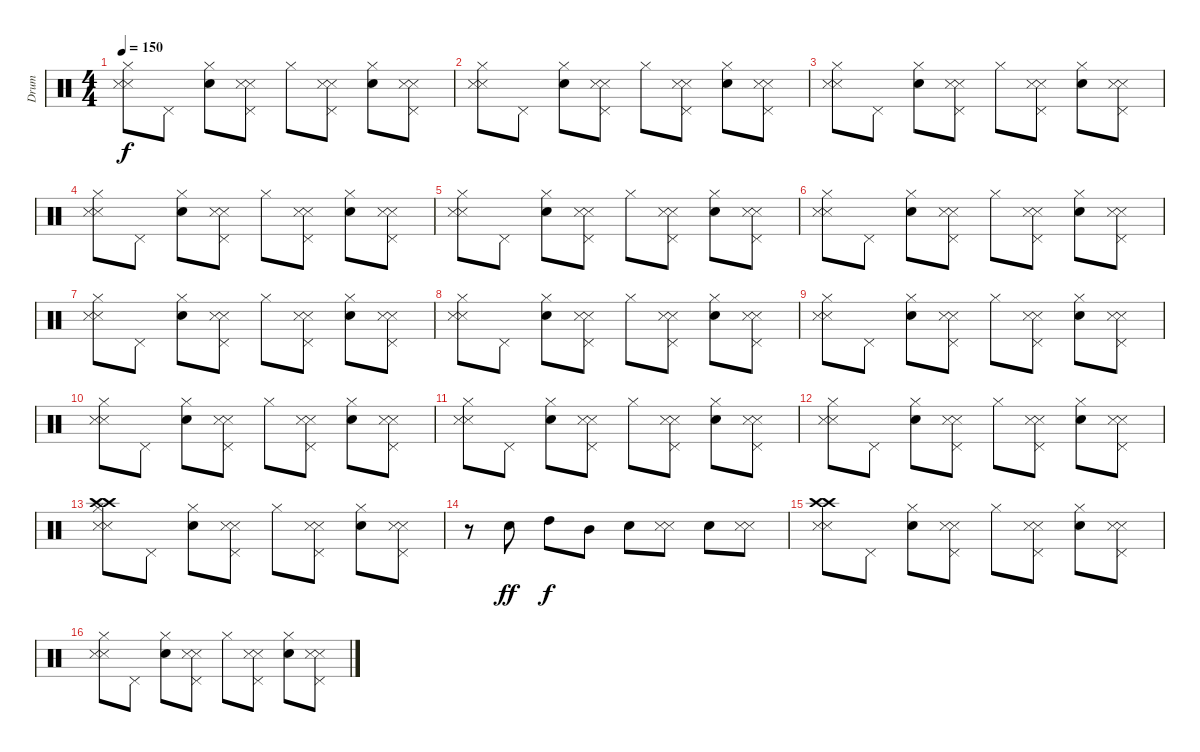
\track ("Drum" "Drum") {instrument percussion}
\staff {score}
\articulation defaults
\ts (4 4)
\tempo 150
\clef neutral
\ks c
("Metronome (hit)" "Metronome (hit)" "Hi-Hat (closed)").8{dy f} "Pedal Hi-Hat (hit)".8 ("Electric Snare (hit)" "Hi-Hat (closed)").8 ("Metronome (hit)" "Metronome (hit)" "Pedal Hi-Hat (hit)").8 "Hi-Hat (closed)".8 ("Metronome (hit)" "Metronome (hit)" "Pedal Hi-Hat (hit)").8 ("Electric Snare (hit)" "Hi-Hat (closed)").8 ("Metronome (hit)" "Metronome (hit)" "Pedal Hi-Hat (hit)").8 |
("Metronome (hit)" "Metronome (hit)" "Hi-Hat (closed)").8 "Pedal Hi-Hat (hit)".8 ("Electric Snare (hit)" "Hi-Hat (closed)").8 ("Metronome (hit)" "Metronome (hit)" "Pedal Hi-Hat (hit)").8 "Hi-Hat (closed)".8 ("Metronome (hit)" "Metronome (hit)" "Pedal Hi-Hat (hit)").8 ("Electric Snare (hit)" "Hi-Hat (closed)").8 ("Metronome (hit)" "Metronome (hit)" "Pedal Hi-Hat (hit)").8 |
("Metronome (hit)" "Metronome (hit)" "Hi-Hat (closed)").8 "Pedal Hi-Hat (hit)".8 ("Electric Snare (hit)" "Hi-Hat (closed)").8 ("Metronome (hit)" "Metronome (hit)" "Pedal Hi-Hat (hit)").8 "Hi-Hat (closed)".8 ("Metronome (hit)" "Metronome (hit)" "Pedal Hi-Hat (hit)").8 ("Electric Snare (hit)" "Hi-Hat (closed)").8 ("Metronome (hit)" "Metronome (hit)" "Pedal Hi-Hat (hit)").8 |
("Metronome (hit)" "Metronome (hit)" "Hi-Hat (closed)").8 "Pedal Hi-Hat (hit)".8 ("Electric Snare (hit)" "Hi-Hat (closed)").8 ("Metronome (hit)" "Metronome (hit)" "Pedal Hi-Hat (hit)").8 "Hi-Hat (closed)".8 ("Metronome (hit)" "Metronome (hit)" "Pedal Hi-Hat (hit)").8 ("Electric Snare (hit)" "Hi-Hat (closed)").8 ("Metronome (hit)" "Metronome (hit)" "Pedal Hi-Hat (hit)").8 |
("Metronome (hit)" "Metronome (hit)" "Hi-Hat (closed)").8 "Pedal Hi-Hat (hit)".8 ("Electric Snare (hit)" "Hi-Hat (closed)").8 ("Metronome (hit)" "Metronome (hit)" "Pedal Hi-Hat (hit)").8 "Hi-Hat (closed)".8 ("Metronome (hit)" "Metronome (hit)" "Pedal Hi-Hat (hit)").8 ("Electric Snare (hit)" "Hi-Hat (closed)").8 ("Metronome (hit)" "Metronome (hit)" "Pedal Hi-Hat (hit)").8 |
("Metronome (hit)" "Metronome (hit)" "Hi-Hat (closed)").8 "Pedal Hi-Hat (hit)".8 ("Electric Snare (hit)" "Hi-Hat (closed)").8 ("Metronome (hit)" "Metronome (hit)" "Pedal Hi-Hat (hit)").8 "Hi-Hat (closed)".8 ("Metronome (hit)" "Metronome (hit)" "Pedal Hi-Hat (hit)").8 ("Electric Snare (hit)" "Hi-Hat (closed)").8 ("Metronome (hit)" "Metronome (hit)" "Pedal Hi-Hat (hit)").8 |
("Metronome (hit)" "Metronome (hit)" "Hi-Hat (closed)").8 "Pedal Hi-Hat (hit)".8 ("Electric Snare (hit)" "Hi-Hat (closed)").8 ("Metronome (hit)" "Metronome (hit)" "Pedal Hi-Hat (hit)").8 "Hi-Hat (closed)".8 ("Metronome (hit)" "Metronome (hit)" "Pedal Hi-Hat (hit)").8 ("Electric Snare (hit)" "Hi-Hat (closed)").8 ("Metronome (hit)" "Metronome (hit)" "Pedal Hi-Hat (hit)").8 |
("Metronome (hit)" "Metronome (hit)" "Hi-Hat (closed)").8 "Pedal Hi-Hat (hit)".8 ("Electric Snare (hit)" "Hi-Hat (closed)").8 ("Metronome (hit)" "Metronome (hit)" "Pedal Hi-Hat (hit)").8 "Hi-Hat (closed)".8 ("Metronome (hit)" "Metronome (hit)" "Pedal Hi-Hat (hit)").8 ("Electric Snare (hit)" "Hi-Hat (closed)").8 ("Metronome (hit)" "Metronome (hit)" "Pedal Hi-Hat (hit)").8 |
("Metronome (hit)" "Metronome (hit)" "Hi-Hat (closed)").8 "Pedal Hi-Hat (hit)".8 ("Electric Snare (hit)" "Hi-Hat (closed)").8 ("Metronome (hit)" "Metronome (hit)" "Pedal Hi-Hat (hit)").8 "Hi-Hat (closed)".8 ("Metronome (hit)" "Metronome (hit)" "Pedal Hi-Hat (hit)").8 ("Electric Snare (hit)" "Hi-Hat (closed)").8 ("Metronome (hit)" "Metronome (hit)" "Pedal Hi-Hat (hit)").8 |
("Metronome (hit)" "Metronome (hit)" "Hi-Hat (closed)").8 "Pedal Hi-Hat (hit)".8 ("Electric Snare (hit)" "Hi-Hat (closed)").8 ("Metronome (hit)" "Metronome (hit)" "Pedal Hi-Hat (hit)").8 "Hi-Hat (closed)".8 ("Metronome (hit)" "Metronome (hit)" "Pedal Hi-Hat (hit)").8 ("Electric Snare (hit)" "Hi-Hat (closed)").8 ("Metronome (hit)" "Metronome (hit)" "Pedal Hi-Hat (hit)").8 |
("Metronome (hit)" "Metronome (hit)" "Hi-Hat (closed)").8 "Pedal Hi-Hat (hit)".8 ("Electric Snare (hit)" "Hi-Hat (closed)").8 ("Metronome (hit)" "Metronome (hit)" "Pedal Hi-Hat (hit)").8 "Hi-Hat (closed)".8 ("Metronome (hit)" "Metronome (hit)" "Pedal Hi-Hat (hit)").8 ("Electric Snare (hit)" "Hi-Hat (closed)").8 ("Metronome (hit)" "Metronome (hit)" "Pedal Hi-Hat (hit)").8 |
("Metronome (hit)" "Metronome (hit)" "Hi-Hat (closed)").8 "Pedal Hi-Hat (hit)".8 ("Electric Snare (hit)" "Hi-Hat (closed)").8 ("Metronome (hit)" "Metronome (hit)" "Pedal Hi-Hat (hit)").8 "Hi-Hat (closed)".8 ("Metronome (hit)" "Metronome (hit)" "Pedal Hi-Hat (hit)").8 ("Electric Snare (hit)" "Hi-Hat (closed)").8 ("Metronome (hit)" "Metronome (hit)" "Pedal Hi-Hat (hit)").8 |
("Crash high (hit)" "Crash high (hit)" "Metronome (hit)" "Metronome (hit)" "Hi-Hat (closed)").8 "Pedal Hi-Hat (hit)".8 ("Electric Snare (hit)" "Hi-Hat (closed)").8 ("Metronome (hit)" "Metronome (hit)" "Pedal Hi-Hat (hit)").8 "Hi-Hat (closed)".8 ("Metronome (hit)" "Metronome (hit)" "Pedal Hi-Hat (hit)").8 ("Electric Snare (hit)" "Hi-Hat (closed)").8 ("Metronome (hit)" "Metronome (hit)" "Pedal Hi-Hat (hit)").8 |
r.8 "Electric Snare (hit)".8{dy ff} "High Tom (hit)".8{dy f} "Mid Tom (hit)".8 "Electric Snare (hit)".8 ("Metronome (hit)" "Metronome (hit)").8 "Electric Snare (hit)".8 ("Metronome (hit)" "Metronome (hit)").8 |
("Metronome (hit)" "Metronome (hit)" "Crash high (hit)" "Crash high (hit)").8 "Pedal Hi-Hat (hit)".8 ("Electric Snare (hit)" "Hi-Hat (closed)").8 ("Metronome (hit)" "Metronome (hit)" "Pedal Hi-Hat (hit)").8 "Hi-Hat (closed)".8 ("Metronome (hit)" "Metronome (hit)" "Pedal Hi-Hat (hit)").8 ("Electric Snare (hit)" "Hi-Hat (closed)").8 ("Metronome (hit)" "Metronome (hit)" "Pedal Hi-Hat (hit)").8 |
("Metronome (hit)" "Metronome (hit)" "Hi-Hat (closed)").8 "Pedal Hi-Hat (hit)".8 ("Electric Snare (hit)" "Hi-Hat (closed)").8 ("Metronome (hit)" "Metronome (hit)" "Pedal Hi-Hat (hit)").8 "Hi-Hat (closed)".8 ("Metronome (hit)" "Metronome (hit)" "Pedal Hi-Hat (hit)").8 ("Electric Snare (hit)" "Hi-Hat (closed)").8 ("Metronome (hit)" "Metronome (hit)" "Pedal Hi-Hat (hit)").8
